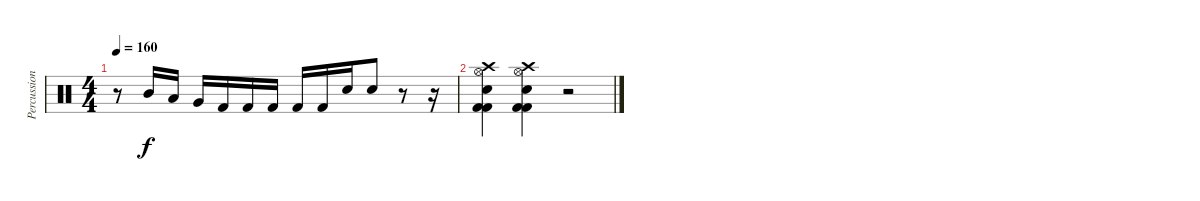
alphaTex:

\track ("Percussion" "Percussion") {instrument percussion}
\staff {score}
\articulation defaults
\ts (4 4)
\tempo 160
\clef neutral
\ks c
r.8{dy f} "Mid Tom (hit)".16 "Low Tom (hit)".16 "Very Low Tom (hit)".16 "Kick (hit) 2".16 "Kick (hit) 2".16 "Kick (hit) 2".16 "Kick (hit) 2".16 "Kick (hit) 2".16 "Electric Snare (hit)".16 "Electric Snare (hit)".8 r.8 r.16 |
("Crash high (hit)" "Hi-Hat (open)" "Electric Snare (hit)" "Kick (hit) 2" "Kick (hit) 2").4 ("Crash high (hit)" "Hi-Hat (open)" "Electric Snare (hit)" "Kick (hit) 2" "Kick (hit) 2").4 r.2
